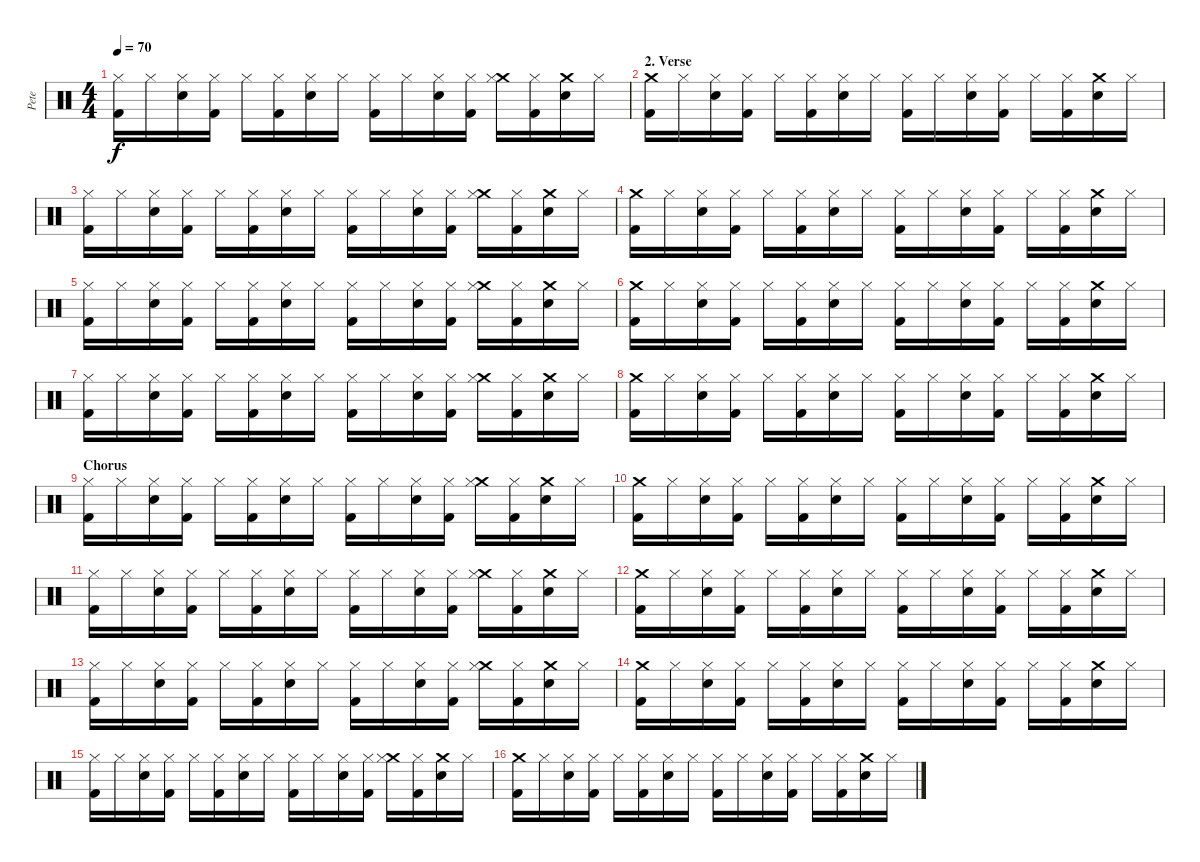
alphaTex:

\track ("Pete" "Pete") {instrument percussion}
\staff {score}
\articulation defaults
\ts (4 4)
\tempo 70
\clef neutral
\ks c
("Hi-Hat (closed)" "Kick (hit) 2").16{dy f} "Hi-Hat (closed)".16 ("Hi-Hat (closed)" "Snare (hit) 2").16 ("Hi-Hat (closed)" "Kick (hit) 2").16 "Hi-Hat (closed)".16 ("Hi-Hat (closed)" "Kick (hit) 2").16 ("Hi-Hat (closed)" "Snare (hit) 2").16 "Hi-Hat (closed)".16 ("Hi-Hat (closed)" "Kick (hit) 2").16 "Hi-Hat (closed)".16 ("Hi-Hat (closed)" "Snare (hit) 2").16 ("Hi-Hat (closed)" "Kick (hit) 2").16 ("Crash medium (hit)" "Hi-Hat (closed)").16 ("Hi-Hat (closed)" "Kick (hit) 2").16 ("Crash medium (hit)" "Snare (hit) 2").16 "Hi-Hat (closed)".16 |
\section ("" "2. Verse")
("Crash medium (hit)" "Kick (hit) 2").16 "Hi-Hat (closed)".16 ("Hi-Hat (closed)" "Snare (hit) 2").16 ("Hi-Hat (closed)" "Kick (hit) 2").16 "Hi-Hat (closed)".16 ("Hi-Hat (closed)" "Kick (hit) 2").16 ("Hi-Hat (closed)" "Snare (hit) 2").16 "Hi-Hat (closed)".16 ("Hi-Hat (closed)" "Kick (hit) 2").16 "Hi-Hat (closed)".16 ("Hi-Hat (closed)" "Snare (hit) 2").16 ("Hi-Hat (closed)" "Kick (hit) 2").16 "Hi-Hat (closed)".16 ("Hi-Hat (closed)" "Kick (hit) 2").16 ("Crash medium (hit)" "Snare (hit) 2").16 "Hi-Hat (closed)".16 |
("Hi-Hat (closed)" "Kick (hit) 2").16 "Hi-Hat (closed)".16 ("Hi-Hat (closed)" "Snare (hit) 2").16 ("Hi-Hat (closed)" "Kick (hit) 2").16 "Hi-Hat (closed)".16 ("Hi-Hat (closed)" "Kick (hit) 2").16 ("Hi-Hat (closed)" "Snare (hit) 2").16 "Hi-Hat (closed)".16 ("Hi-Hat (closed)" "Kick (hit) 2").16 "Hi-Hat (closed)".16 ("Hi-Hat (closed)" "Snare (hit) 2").16 ("Hi-Hat (closed)" "Kick (hit) 2").16 ("Crash medium (hit)" "Hi-Hat (closed)").16 ("Hi-Hat (closed)" "Kick (hit) 2").16 ("Crash medium (hit)" "Snare (hit) 2").16 "Hi-Hat (closed)".16 |
("Crash medium (hit)" "Kick (hit) 2").16 "Hi-Hat (closed)".16 ("Hi-Hat (closed)" "Snare (hit) 2").16 ("Hi-Hat (closed)" "Kick (hit) 2").16 "Hi-Hat (closed)".16 ("Hi-Hat (closed)" "Kick (hit) 2").16 ("Hi-Hat (closed)" "Snare (hit) 2").16 "Hi-Hat (closed)".16 ("Hi-Hat (closed)" "Kick (hit) 2").16 "Hi-Hat (closed)".16 ("Hi-Hat (closed)" "Snare (hit) 2").16 ("Hi-Hat (closed)" "Kick (hit) 2").16 "Hi-Hat (closed)".16 ("Hi-Hat (closed)" "Kick (hit) 2").16 ("Crash medium (hit)" "Snare (hit) 2").16 "Hi-Hat (closed)".16 |
("Hi-Hat (closed)" "Kick (hit) 2").16 "Hi-Hat (closed)".16 ("Hi-Hat (closed)" "Snare (hit) 2").16 ("Hi-Hat (closed)" "Kick (hit) 2").16 "Hi-Hat (closed)".16 ("Hi-Hat (closed)" "Kick (hit) 2").16 ("Hi-Hat (closed)" "Snare (hit) 2").16 "Hi-Hat (closed)".16 ("Hi-Hat (closed)" "Kick (hit) 2").16 "Hi-Hat (closed)".16 ("Hi-Hat (closed)" "Snare (hit) 2").16 ("Hi-Hat (closed)" "Kick (hit) 2").16 ("Crash medium (hit)" "Hi-Hat (closed)").16 ("Hi-Hat (closed)" "Kick (hit) 2").16 ("Crash medium (hit)" "Snare (hit) 2").16 "Hi-Hat (closed)".16 |
("Crash medium (hit)" "Kick (hit) 2").16 "Hi-Hat (closed)".16 ("Hi-Hat (closed)" "Snare (hit) 2").16 ("Hi-Hat (closed)" "Kick (hit) 2").16 "Hi-Hat (closed)".16 ("Hi-Hat (closed)" "Kick (hit) 2").16 ("Hi-Hat (closed)" "Snare (hit) 2").16 "Hi-Hat (closed)".16 ("Hi-Hat (closed)" "Kick (hit) 2").16 "Hi-Hat (closed)".16 ("Hi-Hat (closed)" "Snare (hit) 2").16 ("Hi-Hat (closed)" "Kick (hit) 2").16 "Hi-Hat (closed)".16 ("Hi-Hat (closed)" "Kick (hit) 2").16 ("Crash medium (hit)" "Snare (hit) 2").16 "Hi-Hat (closed)".16 |
("Hi-Hat (closed)" "Kick (hit) 2").16 "Hi-Hat (closed)".16 ("Hi-Hat (closed)" "Snare (hit) 2").16 ("Hi-Hat (closed)" "Kick (hit) 2").16 "Hi-Hat (closed)".16 ("Hi-Hat (closed)" "Kick (hit) 2").16 ("Hi-Hat (closed)" "Snare (hit) 2").16 "Hi-Hat (closed)".16 ("Hi-Hat (closed)" "Kick (hit) 2").16 "Hi-Hat (closed)".16 ("Hi-Hat (closed)" "Snare (hit) 2").16 ("Hi-Hat (closed)" "Kick (hit) 2").16 ("Crash medium (hit)" "Hi-Hat (closed)").16 ("Hi-Hat (closed)" "Kick (hit) 2").16 ("Crash medium (hit)" "Snare (hit) 2").16 "Hi-Hat (closed)".16 |
("Crash medium (hit)" "Kick (hit) 2").16 "Hi-Hat (closed)".16 ("Hi-Hat (closed)" "Snare (hit) 2").16 ("Hi-Hat (closed)" "Kick (hit) 2").16 "Hi-Hat (closed)".16 ("Hi-Hat (closed)" "Kick (hit) 2").16 ("Hi-Hat (closed)" "Snare (hit) 2").16 "Hi-Hat (closed)".16 ("Hi-Hat (closed)" "Kick (hit) 2").16 "Hi-Hat (closed)".16 ("Hi-Hat (closed)" "Snare (hit) 2").16 ("Hi-Hat (closed)" "Kick (hit) 2").16 "Hi-Hat (closed)".16 ("Hi-Hat (closed)" "Kick (hit) 2").16 ("Crash medium (hit)" "Snare (hit) 2").16 "Hi-Hat (closed)".16 |
\section ("" "Chorus")
("Hi-Hat (closed)" "Kick (hit) 2").16 "Hi-Hat (closed)".16 ("Hi-Hat (closed)" "Snare (hit) 2").16 ("Hi-Hat (closed)" "Kick (hit) 2").16 "Hi-Hat (closed)".16 ("Hi-Hat (closed)" "Kick (hit) 2").16 ("Hi-Hat (closed)" "Snare (hit) 2").16 "Hi-Hat (closed)".16 ("Hi-Hat (closed)" "Kick (hit) 2").16 "Hi-Hat (closed)".16 ("Hi-Hat (closed)" "Snare (hit) 2").16 ("Hi-Hat (closed)" "Kick (hit) 2").16 ("Crash medium (hit)" "Hi-Hat (closed)").16 ("Hi-Hat (closed)" "Kick (hit) 2").16 ("Crash medium (hit)" "Snare (hit) 2").16 "Hi-Hat (closed)".16 |
("Crash medium (hit)" "Kick (hit) 2").16 "Hi-Hat (closed)".16 ("Hi-Hat (closed)" "Snare (hit) 2").16 ("Hi-Hat (closed)" "Kick (hit) 2").16 "Hi-Hat (closed)".16 ("Hi-Hat (closed)" "Kick (hit) 2").16 ("Hi-Hat (closed)" "Snare (hit) 2").16 "Hi-Hat (closed)".16 ("Hi-Hat (closed)" "Kick (hit) 2").16 "Hi-Hat (closed)".16 ("Hi-Hat (closed)" "Snare (hit) 2").16 ("Hi-Hat (closed)" "Kick (hit) 2").16 "Hi-Hat (closed)".16 ("Hi-Hat (closed)" "Kick (hit) 2").16 ("Crash medium (hit)" "Snare (hit) 2").16 "Hi-Hat (closed)".16 |
("Hi-Hat (closed)" "Kick (hit) 2").16 "Hi-Hat (closed)".16 ("Hi-Hat (closed)" "Snare (hit) 2").16 ("Hi-Hat (closed)" "Kick (hit) 2").16 "Hi-Hat (closed)".16 ("Hi-Hat (closed)" "Kick (hit) 2").16 ("Hi-Hat (closed)" "Snare (hit) 2").16 "Hi-Hat (closed)".16 ("Hi-Hat (closed)" "Kick (hit) 2").16 "Hi-Hat (closed)".16 ("Hi-Hat (closed)" "Snare (hit) 2").16 ("Hi-Hat (closed)" "Kick (hit) 2").16 ("Crash medium (hit)" "Hi-Hat (closed)").16 ("Hi-Hat (closed)" "Kick (hit) 2").16 ("Crash medium (hit)" "Snare (hit) 2").16 "Hi-Hat (closed)".16 |
("Crash medium (hit)" "Kick (hit) 2").16 "Hi-Hat (closed)".16 ("Hi-Hat (closed)" "Snare (hit) 2").16 ("Hi-Hat (closed)" "Kick (hit) 2").16 "Hi-Hat (closed)".16 ("Hi-Hat (closed)" "Kick (hit) 2").16 ("Hi-Hat (closed)" "Snare (hit) 2").16 "Hi-Hat (closed)".16 ("Hi-Hat (closed)" "Kick (hit) 2").16 "Hi-Hat (closed)".16 ("Hi-Hat (closed)" "Snare (hit) 2").16 ("Hi-Hat (closed)" "Kick (hit) 2").16 "Hi-Hat (closed)".16 ("Hi-Hat (closed)" "Kick (hit) 2").16 ("Crash medium (hit)" "Snare (hit) 2").16 "Hi-Hat (closed)".16 |
("Hi-Hat (closed)" "Kick (hit) 2").16 "Hi-Hat (closed)".16 ("Hi-Hat (closed)" "Snare (hit) 2").16 ("Hi-Hat (closed)" "Kick (hit) 2").16 "Hi-Hat (closed)".16 ("Hi-Hat (closed)" "Kick (hit) 2").16 ("Hi-Hat (closed)" "Snare (hit) 2").16 "Hi-Hat (closed)".16 ("Hi-Hat (closed)" "Kick (hit) 2").16 "Hi-Hat (closed)".16 ("Hi-Hat (closed)" "Snare (hit) 2").16 ("Hi-Hat (closed)" "Kick (hit) 2").16 ("Crash medium (hit)" "Hi-Hat (closed)").16 ("Hi-Hat (closed)" "Kick (hit) 2").16 ("Crash medium (hit)" "Snare (hit) 2").16 "Hi-Hat (closed)".16 |
("Crash medium (hit)" "Kick (hit) 2").16 "Hi-Hat (closed)".16 ("Hi-Hat (closed)" "Snare (hit) 2").16 ("Hi-Hat (closed)" "Kick (hit) 2").16 "Hi-Hat (closed)".16 ("Hi-Hat (closed)" "Kick (hit) 2").16 ("Hi-Hat (closed)" "Snare (hit) 2").16 "Hi-Hat (closed)".16 ("Hi-Hat (closed)" "Kick (hit) 2").16 "Hi-Hat (closed)".16 ("Hi-Hat (closed)" "Snare (hit) 2").16 ("Hi-Hat (closed)" "Kick (hit) 2").16 "Hi-Hat (closed)".16 ("Hi-Hat (closed)" "Kick (hit) 2").16 ("Crash medium (hit)" "Snare (hit) 2").16 "Hi-Hat (closed)".16 |
("Hi-Hat (closed)" "Kick (hit) 2").16 "Hi-Hat (closed)".16 ("Hi-Hat (closed)" "Snare (hit) 2").16 ("Hi-Hat (closed)" "Kick (hit) 2").16 "Hi-Hat (closed)".16 ("Hi-Hat (closed)" "Kick (hit) 2").16 ("Hi-Hat (closed)" "Snare (hit) 2").16 "Hi-Hat (closed)".16 ("Hi-Hat (closed)" "Kick (hit) 2").16 "Hi-Hat (closed)".16 ("Hi-Hat (closed)" "Snare (hit) 2").16 ("Hi-Hat (closed)" "Kick (hit) 2").16 ("Crash medium (hit)" "Hi-Hat (closed)").16 ("Hi-Hat (closed)" "Kick (hit) 2").16 ("Crash medium (hit)" "Snare (hit) 2").16 "Hi-Hat (closed)".16 |
("Crash medium (hit)" "Kick (hit) 2").16 "Hi-Hat (closed)".16 ("Hi-Hat (closed)" "Snare (hit) 2").16 ("Hi-Hat (closed)" "Kick (hit) 2").16 "Hi-Hat (closed)".16 ("Hi-Hat (closed)" "Kick (hit) 2").16 ("Hi-Hat (closed)" "Snare (hit) 2").16 "Hi-Hat (closed)".16 ("Hi-Hat (closed)" "Kick (hit) 2").16 "Hi-Hat (closed)".16 ("Hi-Hat (closed)" "Snare (hit) 2").16 ("Hi-Hat (closed)" "Kick (hit) 2").16 "Hi-Hat (closed)".16 ("Hi-Hat (closed)" "Kick (hit) 2").16 ("Crash medium (hit)" "Snare (hit) 2").16 "Hi-Hat (closed)".16
